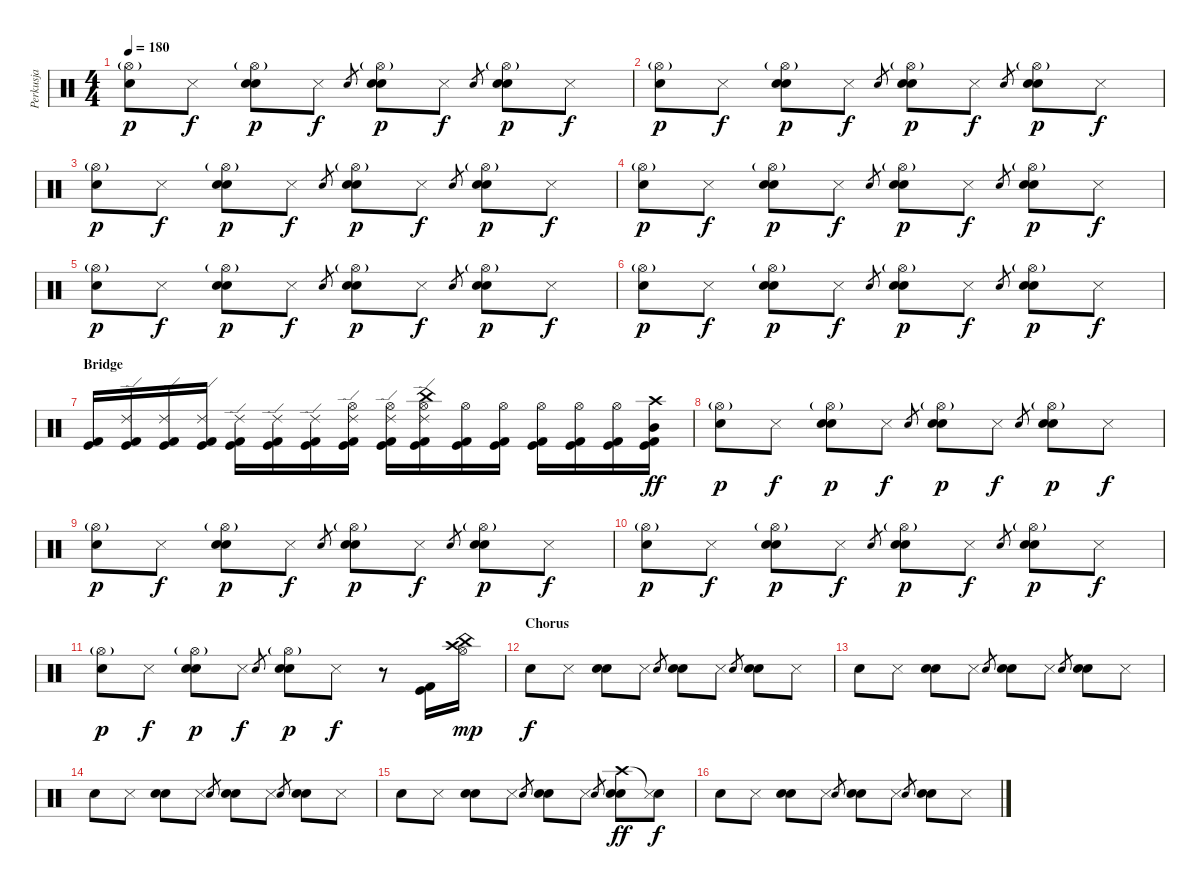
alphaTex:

\track ("Perkusja" "Perkusja") {instrument percussion}
\staff {score}
\articulation defaults
\ts (4 4)
\tempo 180
\clef neutral
\ks c
("Hi-Hat (open)"{g} "Snare (hit) 2").8{dy p} "Snare (side stick) 3".8{dy f} ("Hi-Hat (open)"{g} "Electric Snare (hit)" "Metronome (bell)").8{dy p} "Snare (side stick) 3".8{dy f} "Snare (hit) 2".8{gr} ("Hi-Hat (open)"{g} "Snare (hit) 2" "Metronome (bell)").8{dy p} "Snare (side stick) 3".8{dy f} "Electric Snare (hit)".8{gr} ("Hi-Hat (open)"{g} "Electric Snare (hit)" "Metronome (bell)").8{dy p} "Snare (side stick) 3".8{dy f} |
("Hi-Hat (open)"{g} "Snare (hit) 2").8{dy p} "Snare (side stick) 3".8{dy f} ("Hi-Hat (open)"{g} "Electric Snare (hit)" "Metronome (bell)").8{dy p} "Snare (side stick) 3".8{dy f} "Snare (hit) 2".8{gr} ("Hi-Hat (open)"{g} "Snare (hit) 2" "Metronome (bell)").8{dy p} "Snare (side stick) 3".8{dy f} "Electric Snare (hit)".8{gr} ("Hi-Hat (open)"{g} "Electric Snare (hit)" "Metronome (bell)").8{dy p} "Snare (side stick) 3".8{dy f} |
("Hi-Hat (open)"{g} "Snare (hit) 2").8{dy p} "Snare (side stick) 3".8{dy f} ("Hi-Hat (open)"{g} "Electric Snare (hit)" "Metronome (bell)").8{dy p} "Snare (side stick) 3".8{dy f} "Snare (hit) 2".8{gr} ("Hi-Hat (open)"{g} "Snare (hit) 2" "Metronome (bell)").8{dy p} "Snare (side stick) 3".8{dy f} "Electric Snare (hit)".8{gr} ("Hi-Hat (open)"{g} "Electric Snare (hit)" "Metronome (bell)").8{dy p} "Snare (side stick) 3".8{dy f} |
("Hi-Hat (open)"{g} "Snare (hit) 2").8{dy p} "Snare (side stick) 3".8{dy f} ("Hi-Hat (open)"{g} "Electric Snare (hit)" "Metronome (bell)").8{dy p} "Snare (side stick) 3".8{dy f} "Snare (hit) 2".8{gr} ("Hi-Hat (open)"{g} "Snare (hit) 2" "Metronome (bell)").8{dy p} "Snare (side stick) 3".8{dy f} "Electric Snare (hit)".8{gr} ("Hi-Hat (open)"{g} "Electric Snare (hit)" "Metronome (bell)").8{dy p} "Snare (side stick) 3".8{dy f} |
("Hi-Hat (open)"{g} "Snare (hit) 2").8{dy p} "Snare (side stick) 3".8{dy f} ("Hi-Hat (open)"{g} "Electric Snare (hit)" "Metronome (bell)").8{dy p} "Snare (side stick) 3".8{dy f} "Snare (hit) 2".8{gr} ("Hi-Hat (open)"{g} "Snare (hit) 2" "Metronome (bell)").8{dy p} "Snare (side stick) 3".8{dy f} "Electric Snare (hit)".8{gr} ("Hi-Hat (open)"{g} "Electric Snare (hit)" "Metronome (bell)").8{dy p} "Snare (side stick) 3".8{dy f} |
("Hi-Hat (open)"{g} "Snare (hit) 2").8{dy p} "Snare (side stick) 3".8{dy f} ("Hi-Hat (open)"{g} "Electric Snare (hit)" "Metronome (bell)").8{dy p} "Snare (side stick) 3".8{dy f} "Snare (hit) 2".8{gr} ("Hi-Hat (open)"{g} "Snare (hit) 2" "Metronome (bell)").8{dy p} "Snare (side stick) 3".8{dy f} "Electric Snare (hit)".8{gr} ("Hi-Hat (open)"{g} "Electric Snare (hit)" "Metronome (bell)").8{dy p} "Snare (side stick) 3".8{dy f} |
\section ("" "Bridge")
("Kick (hit)" "Kick (hit) 2").16 ("Kick (hit)" "Kick (hit) 2" "Ride (edge) 2").16 ("Kick (hit)" "Kick (hit) 2" "Ride (edge) 2").16 ("Kick (hit)" "Kick (hit) 2" "Ride (edge) 2").16 ("Kick (hit)" "Kick (hit) 2" "Ride (edge) 2").16 ("Kick (hit)" "Kick (hit) 2" "Ride (edge) 2").16 ("Kick (hit)" "Kick (hit) 2" "Ride (edge) 2").16 ("Kick (hit)" "Kick (hit) 2" "Ride (edge) 2" "Hi-Hat (open)").16 ("Kick (hit)" "Kick (hit) 2" "Ride (edge) 2" "Hi-Hat (open)").16 ("Kick (hit)" "Kick (hit) 2" "China (hit)" "Ride (edge) 2" "Hi-Hat (open)").16 ("Kick (hit)" "Kick (hit) 2" "Hi-Hat (open)").16 ("Kick (hit)" "Kick (hit) 2" "Hi-Hat (open)").16 ("Kick (hit)" "Kick (hit) 2" "Hi-Hat (open)").16 ("Kick (hit)" "Kick (hit) 2" "Hi-Hat (open)").16 ("Kick (hit)" "Kick (hit) 2" "Hi-Hat (open)").16 ("Kick (hit)" "Kick (hit) 2" "Crash high (hit)" "Mid Tom (hit)").16{dy ff} |
("Hi-Hat (open)"{g} "Snare (hit) 2").8{dy p} "Snare (side stick) 3".8{dy f} ("Hi-Hat (open)"{g} "Electric Snare (hit)" "Metronome (bell)").8{dy p} "Snare (side stick) 3".8{dy f} "Snare (hit) 2".8{gr} ("Hi-Hat (open)"{g} "Snare (hit) 2" "Metronome (bell)").8{dy p} "Snare (side stick) 3".8{dy f} "Electric Snare (hit)".8{gr} ("Hi-Hat (open)"{g} "Electric Snare (hit)" "Metronome (bell)").8{dy p} "Snare (side stick) 3".8{dy f} |
("Hi-Hat (open)"{g} "Snare (hit) 2").8{dy p} "Snare (side stick) 3".8{dy f} ("Hi-Hat (open)"{g} "Electric Snare (hit)" "Metronome (bell)").8{dy p} "Snare (side stick) 3".8{dy f} "Snare (hit) 2".8{gr} ("Hi-Hat (open)"{g} "Snare (hit) 2" "Metronome (bell)").8{dy p} "Snare (side stick) 3".8{dy f} "Electric Snare (hit)".8{gr} ("Hi-Hat (open)"{g} "Electric Snare (hit)" "Metronome (bell)").8{dy p} "Snare (side stick) 3".8{dy f} |
("Hi-Hat (open)"{g} "Snare (hit) 2").8{dy p} "Snare (side stick) 3".8{dy f} ("Hi-Hat (open)"{g} "Electric Snare (hit)" "Metronome (bell)").8{dy p} "Snare (side stick) 3".8{dy f} "Snare (hit) 2".8{gr} ("Hi-Hat (open)"{g} "Snare (hit) 2" "Metronome (bell)").8{dy p} "Snare (side stick) 3".8{dy f} "Electric Snare (hit)".8{gr} ("Hi-Hat (open)"{g} "Electric Snare (hit)" "Metronome (bell)").8{dy p} "Snare (side stick) 3".8{dy f} |
("Hi-Hat (open)"{g} "Snare (hit) 2").8{dy p} "Snare (side stick) 3".8{dy f} ("Hi-Hat (open)"{g} "Electric Snare (hit)" "Metronome (bell)").8{dy p} "Snare (side stick) 3".8{dy f} "Snare (hit) 2".8{gr} ("Hi-Hat (open)"{g} "Snare (hit) 2" "Metronome (bell)").8{dy p} "Snare (side stick) 3".8{dy f} r.8 ("Kick (hit) 2" "Kick (hit)").16 ("Hi-Hat (open)" "Crash high (hit)" "China (hit)").16{dy mp} |
\section ("" "Chorus")
"Snare (hit) 2".8{dy f} "Snare (side stick) 3".8 ("Electric Snare (hit)" "Metronome (bell)").8 "Snare (side stick) 3".8 "Snare (hit) 2".8{gr} ("Snare (hit) 2" "Metronome (bell)").8 "Snare (side stick) 3".8 "Electric Snare (hit)".8{gr} ("Electric Snare (hit)" "Metronome (bell)").8 "Snare (side stick) 3".8 |
"Snare (hit) 2".8 "Snare (side stick) 3".8 ("Electric Snare (hit)" "Metronome (bell)").8 "Snare (side stick) 3".8 "Snare (hit) 2".8{gr} ("Snare (hit) 2" "Metronome (bell)").8 "Snare (side stick) 3".8 "Electric Snare (hit)".8{gr} ("Electric Snare (hit)" "Metronome (bell)").8 "Snare (side stick) 3".8 |
"Snare (hit) 2".8 "Snare (side stick) 3".8 ("Electric Snare (hit)" "Metronome (bell)").8 "Snare (side stick) 3".8 "Snare (hit) 2".8{gr} ("Snare (hit) 2" "Metronome (bell)").8 "Snare (side stick) 3".8 "Electric Snare (hit)".8{gr} ("Electric Snare (hit)" "Metronome (bell)").8 "Snare (side stick) 3".8 |
"Snare (hit) 2".8 "Snare (side stick) 3".8 ("Electric Snare (hit)" "Metronome (bell)").8 "Snare (side stick) 3".8 "Snare (hit) 2".8{gr} ("Snare (hit) 2" "Metronome (bell)").8 "Snare (side stick) 3".8 "Electric Snare (hit)".8{gr} ("Crash high (hit)" "Electric Snare (hit)" "Metronome (bell)").8{dy ff} ("Snare (hit)"{t} "Snare (side stick) 3").8{dy f} |
"Snare (hit) 2".8 "Snare (side stick) 3".8 ("Electric Snare (hit)" "Metronome (bell)").8 "Snare (side stick) 3".8 "Snare (hit) 2".8{gr} ("Snare (hit) 2" "Metronome (bell)").8 "Snare (side stick) 3".8 "Electric Snare (hit)".8{gr} ("Electric Snare (hit)" "Metronome (bell)").8 "Snare (side stick) 3".8
